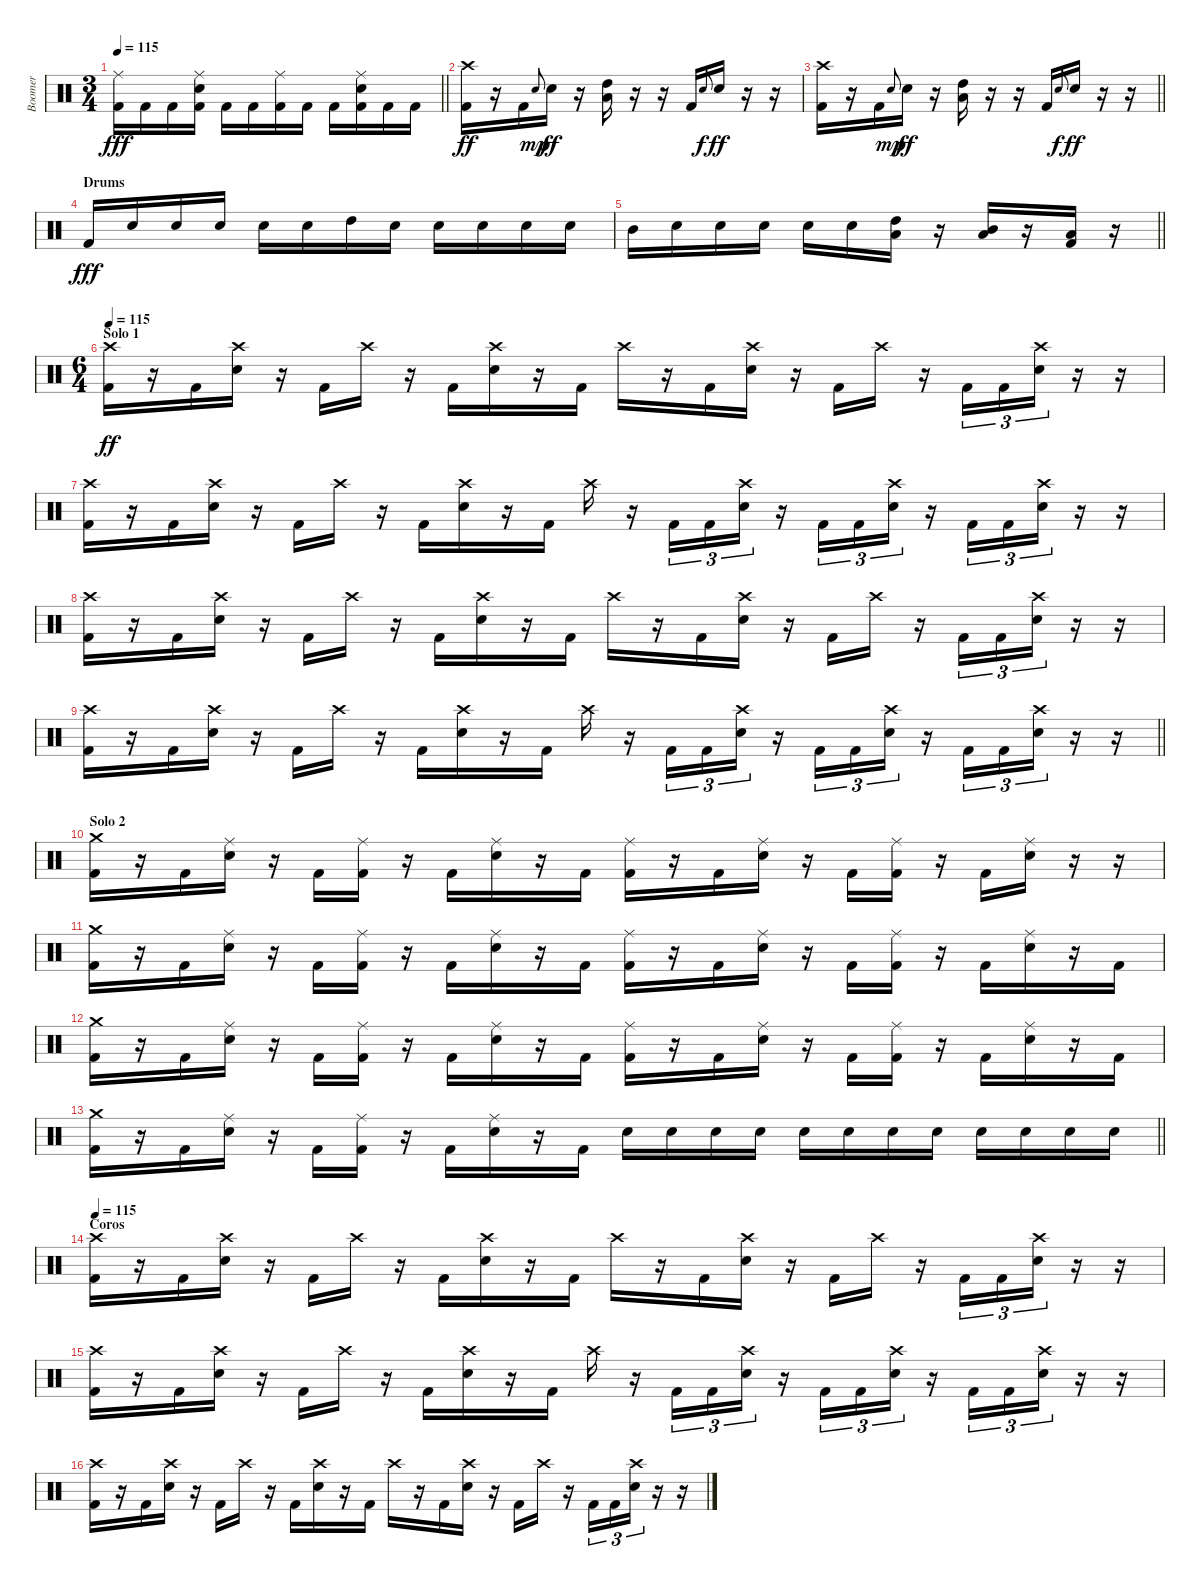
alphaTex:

\track ("Boomer" "Boomer") {instrument percussion}
\staff {score}
\articulation defaults
\ts (3 4)
\tempo 115
\clef neutral
\barLineRight lightlight
\ks c
("Ride (middle)" "Kick (hit) 2").16{dy fff} "Kick (hit) 2".16 "Kick (hit) 2".16 ("Ride (middle)" "Electric Snare (hit)" "Kick (hit) 2").16 "Kick (hit) 2".16 "Kick (hit) 2".16 ("Ride (middle)" "Kick (hit) 2").16 "Kick (hit) 2".16 "Kick (hit) 2".16 ("Ride (middle)" "Electric Snare (hit)" "Kick (hit) 2").16 "Kick (hit) 2".16 "Kick (hit) 2".16 |
\section ("" "")
("Crash high (hit)" "Kick (hit) 2").16{dy ff} r.16 "Kick (hit) 2".16 "Electric Snare (hit)".8{gr onbeat dy mp} "Electric Snare (hit)".16{dy ff} r.16 ("High Tom (hit)" "Low Tom (hit)").16 r.16 r.16 "Kick (hit) 2".16 "Electric Snare (hit)".8{gr onbeat dy f} "Electric Snare (hit)".16{dy ff} r.16 r.16 |
\barLineRight lightlight
("Crash high (hit)" "Kick (hit) 2").16 r.16 "Kick (hit) 2".16 "Electric Snare (hit)".8{gr onbeat dy mp} "Electric Snare (hit)".16{dy ff} r.16 ("High Tom (hit)" "Low Tom (hit)").16 r.16 r.16 "Kick (hit) 2".16 "Electric Snare (hit)".8{gr onbeat dy f} "Electric Snare (hit)".16{dy ff} r.16 r.16 |
\section ("" "Drums")
"Kick (hit) 2".16{dy fff} "Electric Snare (hit)".16 "Electric Snare (hit)".16 "Electric Snare (hit)".16 "Electric Snare (hit)".16 "Electric Snare (hit)".16 "High Tom (hit)".16 "Electric Snare (hit)".16 "Electric Snare (hit)".16 "Electric Snare (hit)".16 "Electric Snare (hit)".16 "Electric Snare (hit)".16 |
\barLineRight lightlight "Mid Tom (hit)".16 "Electric Snare (hit)".16 "Electric Snare (hit)".16 "Electric Snare (hit)".16 "Electric Snare (hit)".16 "Electric Snare (hit)".16
("High Tom (hit)" "Low Tom (hit)").16 r.16 ("Mid Tom (hit)" "Low Tom (hit)").16 r.16 ("Low Tom (hit)" "Kick (hit) 2").16 r.16 |
\ts (6 4)
\section ("" "Solo 1")
\tempo 115
("Crash high (hit)" "Kick (hit) 2").16{dy ff} r.16 "Kick (hit) 2".16 ("Crash high (hit)" "Electric Snare (hit)").16 r.16 "Kick (hit) 2".16 "Crash high (hit)".16 r.16 "Kick (hit) 2".16 ("Crash high (hit)" "Electric Snare (hit)").16 r.16 "Kick (hit) 2".16 "Crash high (hit)".16 r.16 "Kick (hit) 2".16 ("Crash high (hit)" "Electric Snare (hit)").16 r.16 "Kick (hit) 2".16 "Crash high (hit)".16 r.16 "Kick (hit) 2".16{tu (3 2)} "Kick (hit) 2".16{tu (3 2)} ("Crash high (hit)" "Electric Snare (hit)").16{tu (3 2)} r.16 r.16 |
("Crash high (hit)" "Kick (hit) 2").16 r.16 "Kick (hit) 2".16 ("Crash high (hit)" "Electric Snare (hit)").16 r.16 "Kick (hit) 2".16 "Crash high (hit)".16 r.16 "Kick (hit) 2".16 ("Crash high (hit)" "Electric Snare (hit)").16 r.16 "Kick (hit) 2".16 "Crash high (hit)".16 r.16 "Kick (hit) 2".16{tu (3 2)} "Kick (hit) 2".16{tu (3 2)} ("Crash high (hit)" "Electric Snare (hit)").16{tu (3 2)} r.16 "Kick (hit) 2".16{tu (3 2)} "Kick (hit) 2".16{tu (3 2)} ("Crash high (hit)" "Electric Snare (hit)").16{tu (3 2)} r.16 "Kick (hit) 2".16{tu (3 2)} "Kick (hit) 2".16{tu (3 2)} ("Crash high (hit)" "Electric Snare (hit)").16{tu (3 2)} r.16 r.16 |
("Crash high (hit)" "Kick (hit) 2").16 r.16 "Kick (hit) 2".16 ("Crash high (hit)" "Electric Snare (hit)").16 r.16 "Kick (hit) 2".16 "Crash high (hit)".16 r.16 "Kick (hit) 2".16 ("Crash high (hit)" "Electric Snare (hit)").16 r.16 "Kick (hit) 2".16 "Crash high (hit)".16 r.16 "Kick (hit) 2".16 ("Crash high (hit)" "Electric Snare (hit)").16 r.16 "Kick (hit) 2".16 "Crash high (hit)".16 r.16 "Kick (hit) 2".16{tu (3 2)} "Kick (hit) 2".16{tu (3 2)} ("Crash high (hit)" "Electric Snare (hit)").16{tu (3 2)} r.16 r.16 |
\barLineRight lightlight
("Crash high (hit)" "Kick (hit) 2").16 r.16 "Kick (hit) 2".16 ("Crash high (hit)" "Electric Snare (hit)").16 r.16 "Kick (hit) 2".16 "Crash high (hit)".16 r.16 "Kick (hit) 2".16 ("Crash high (hit)" "Electric Snare (hit)").16 r.16 "Kick (hit) 2".16 "Crash high (hit)".16 r.16 "Kick (hit) 2".16{tu (3 2)} "Kick (hit) 2".16{tu (3 2)} ("Crash high (hit)" "Electric Snare (hit)").16{tu (3 2)} r.16 "Kick (hit) 2".16{tu (3 2)} "Kick (hit) 2".16{tu (3 2)} ("Crash high (hit)" "Electric Snare (hit)").16{tu (3 2)} r.16 "Kick (hit) 2".16{tu (3 2)} "Kick (hit) 2".16{tu (3 2)} ("Crash high (hit)" "Electric Snare (hit)").16{tu (3 2)} r.16 r.16 |
\section ("" "Solo 2")
("Crash medium (hit)" "Kick (hit) 2").16 r.16 "Kick (hit) 2".16 ("Ride (middle)" "Electric Snare (hit)").16 r.16 "Kick (hit) 2".16 ("Ride (middle)" "Kick (hit) 2").16 r.16 "Kick (hit) 2".16 ("Ride (middle)" "Electric Snare (hit)").16 r.16 "Kick (hit) 2".16 ("Ride (middle)" "Kick (hit) 2").16 r.16 "Kick (hit) 2".16 ("Ride (middle)" "Electric Snare (hit)").16 r.16 "Kick (hit) 2".16 ("Ride (middle)" "Kick (hit) 2").16 r.16 "Kick (hit) 2".16 ("Ride (middle)" "Electric Snare (hit)").16 r.16 r.16 |
("Crash medium (hit)" "Kick (hit) 2").16 r.16 "Kick (hit) 2".16 ("Ride (middle)" "Electric Snare (hit)").16 r.16 "Kick (hit) 2".16 ("Ride (middle)" "Kick (hit) 2").16 r.16 "Kick (hit) 2".16 ("Ride (middle)" "Electric Snare (hit)").16 r.16 "Kick (hit) 2".16 ("Ride (middle)" "Kick (hit) 2").16 r.16 "Kick (hit) 2".16 ("Ride (middle)" "Electric Snare (hit)").16 r.16 "Kick (hit) 2".16 ("Ride (middle)" "Kick (hit) 2").16 r.16 "Kick (hit) 2".16 ("Ride (middle)" "Electric Snare (hit)").16 r.16 "Kick (hit) 2".16 |
("Crash medium (hit)" "Kick (hit) 2").16 r.16 "Kick (hit) 2".16 ("Ride (middle)" "Electric Snare (hit)").16 r.16 "Kick (hit) 2".16 ("Ride (middle)" "Kick (hit) 2").16 r.16 "Kick (hit) 2".16 ("Ride (middle)" "Electric Snare (hit)").16 r.16 "Kick (hit) 2".16 ("Ride (middle)" "Kick (hit) 2").16 r.16 "Kick (hit) 2".16 ("Ride (middle)" "Electric Snare (hit)").16 r.16 "Kick (hit) 2".16 ("Ride (middle)" "Kick (hit) 2").16 r.16 "Kick (hit) 2".16 ("Ride (middle)" "Electric Snare (hit)").16 r.16 "Kick (hit) 2".16 |
\barLineRight lightlight
("Crash medium (hit)" "Kick (hit) 2").16 r.16 "Kick (hit) 2".16 ("Ride (middle)" "Electric Snare (hit)").16 r.16 "Kick (hit) 2".16 ("Ride (middle)" "Kick (hit) 2").16 r.16 "Kick (hit) 2".16 ("Ride (middle)" "Electric Snare (hit)").16 r.16 "Kick (hit) 2".16 "Electric Snare (hit)".16 "Electric Snare (hit)".16 "Electric Snare (hit)".16 "Electric Snare (hit)".16 "Electric Snare (hit)".16 "Electric Snare (hit)".16 "Electric Snare (hit)".16 "Electric Snare (hit)".16 "Electric Snare (hit)".16 "Electric Snare (hit)".16 "Electric Snare (hit)".16 "Electric Snare (hit)".16 |
\section ("" "Coros ")
\tempo 115
("Crash high (hit)" "Kick (hit) 2").16 r.16 "Kick (hit) 2".16 ("Crash high (hit)" "Electric Snare (hit)").16 r.16 "Kick (hit) 2".16 "Crash high (hit)".16 r.16 "Kick (hit) 2".16 ("Crash high (hit)" "Electric Snare (hit)").16 r.16 "Kick (hit) 2".16 "Crash high (hit)".16 r.16 "Kick (hit) 2".16 ("Crash high (hit)" "Electric Snare (hit)").16 r.16 "Kick (hit) 2".16 "Crash high (hit)".16 r.16 "Kick (hit) 2".16{tu (3 2)} "Kick (hit) 2".16{tu (3 2)} ("Crash high (hit)" "Electric Snare (hit)").16{tu (3 2)} r.16 r.16 |
("Crash high (hit)" "Kick (hit) 2").16 r.16 "Kick (hit) 2".16 ("Crash high (hit)" "Electric Snare (hit)").16 r.16 "Kick (hit) 2".16 "Crash high (hit)".16 r.16 "Kick (hit) 2".16 ("Crash high (hit)" "Electric Snare (hit)").16 r.16 "Kick (hit) 2".16 "Crash high (hit)".16 r.16 "Kick (hit) 2".16{tu (3 2)} "Kick (hit) 2".16{tu (3 2)} ("Crash high (hit)" "Electric Snare (hit)").16{tu (3 2)} r.16 "Kick (hit) 2".16{tu (3 2)} "Kick (hit) 2".16{tu (3 2)} ("Crash high (hit)" "Electric Snare (hit)").16{tu (3 2)} r.16 "Kick (hit) 2".16{tu (3 2)} "Kick (hit) 2".16{tu (3 2)} ("Crash high (hit)" "Electric Snare (hit)").16{tu (3 2)} r.16 r.16 |
("Crash high (hit)" "Kick (hit) 2").16 r.16 "Kick (hit) 2".16 ("Crash high (hit)" "Electric Snare (hit)").16 r.16 "Kick (hit) 2".16 "Crash high (hit)".16 r.16 "Kick (hit) 2".16 ("Crash high (hit)" "Electric Snare (hit)").16 r.16 "Kick (hit) 2".16 "Crash high (hit)".16 r.16 "Kick (hit) 2".16 ("Crash high (hit)" "Electric Snare (hit)").16 r.16 "Kick (hit) 2".16 "Crash high (hit)".16 r.16 "Kick (hit) 2".16{tu (3 2)} "Kick (hit) 2".16{tu (3 2)} ("Crash high (hit)" "Electric Snare (hit)").16{tu (3 2)} r.16 r.16
